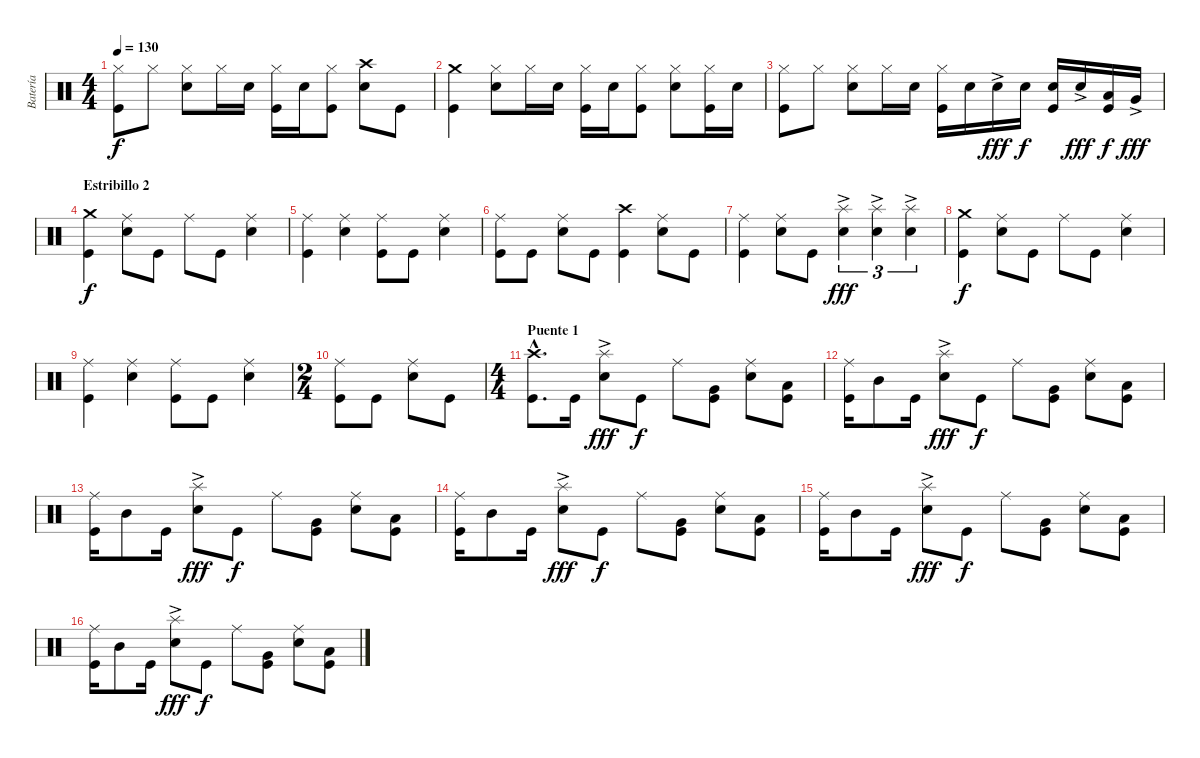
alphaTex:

\track ("Batería" "Batería") {instrument percussion}
\staff {score}
\articulation defaults
\ts (4 4)
\tempo 130
\clef neutral
\ks c
("Kick (hit)" "Hi-Hat (closed)").8{dy f} "Hi-Hat (closed)".8 ("Electric Snare (hit)" "Hi-Hat (closed)").8 "Hi-Hat (closed)".16 "Electric Snare (hit)".16 ("Kick (hit)" "Hi-Hat (closed)").16 "Electric Snare (hit)".16 ("Kick (hit)" "Hi-Hat (closed)").8 ("Electric Snare (hit)" "Crash high (hit)").8 "Kick (hit)".8 |
("Kick (hit)" "Crash medium (hit)").4 ("Electric Snare (hit)" "Hi-Hat (closed)").8 "Hi-Hat (closed)".16 "Electric Snare (hit)".16 ("Kick (hit)" "Hi-Hat (closed)").16 "Electric Snare (hit)".16 ("Kick (hit)" "Hi-Hat (closed)").8 ("Electric Snare (hit)" "Hi-Hat (closed)").8 ("Kick (hit)" "Hi-Hat (closed)").16 "Electric Snare (hit)".16 |
("Kick (hit)" "Hi-Hat (closed)").8 "Hi-Hat (closed)".8 ("Electric Snare (hit)" "Hi-Hat (closed)").8 "Hi-Hat (closed)".16 "Electric Snare (hit)".16 ("Kick (hit)" "Hi-Hat (closed)").16 "Electric Snare (hit)".16 "Electric Snare (hit)"{ac}.16{dy fff} "Electric Snare (hit)".16{dy f} ("Kick (hit)" "Electric Snare (hit)").16 "Electric Snare (hit)"{ac}.16{dy fff} ("Kick (hit)" "Low Tom (hit)").16{dy f} "Very Low Tom (hit)"{ac}.16{dy fff} |
\section ("" "Estribillo 2")
("Kick (hit)" "Crash medium (hit)").4{dy f} ("Electric Snare (hit)" "Ride (middle)").8 "Kick (hit)".8 "Ride (middle)".8 "Kick (hit)".8 ("Electric Snare (hit)" "Ride (middle)").4 |
("Kick (hit)" "Ride (middle)").4 ("Electric Snare (hit)" "Ride (middle)").4 ("Kick (hit)" "Ride (middle)").8 "Kick (hit)".8 ("Electric Snare (hit)" "Ride (middle)").4 |
("Kick (hit)" "Ride (middle)").8 "Kick (hit)".8 ("Electric Snare (hit)" "Ride (middle)").8 "Kick (hit)".8 ("Kick (hit)" "Crash high (hit)").4 ("Electric Snare (hit)" "Ride (middle)").8 "Kick (hit)".8 |
("Kick (hit)" "Ride (middle)").4 ("Electric Snare (hit)" "Ride (middle)").8 "Kick (hit)".8 ("Electric Snare (hit)" "Splash (hit)"{ac}).4{tu (3 2) dy fff} ("Electric Snare (hit)" "Splash (hit)"{ac}).4{tu (3 2)} ("Electric Snare (hit)" "Splash (hit)"{ac}).4{tu (3 2)} |
("Kick (hit)" "Crash medium (hit)").4{dy f} ("Electric Snare (hit)" "Ride (middle)").8 "Kick (hit)".8 "Ride (middle)".8 "Kick (hit)".8 ("Electric Snare (hit)" "Ride (middle)").4 |
("Kick (hit)" "Ride (middle)").4 ("Electric Snare (hit)" "Ride (middle)").4 ("Kick (hit)" "Ride (middle)").8 "Kick (hit)".8 ("Electric Snare (hit)" "Ride (middle)").4 |
\ts (2 4)
("Kick (hit)" "Ride (middle)").8 "Kick (hit)".8 ("Electric Snare (hit)" "Ride (middle)").8 "Kick (hit)".8 |
\ts (4 4)
\section ("" "Puente 1")
("Kick (hit)"{hac} "Crash high (hit)"{hac}).8{d} "Kick (hit)".16 ("Electric Snare (hit)" "Splash (hit)"{ac}).8{dy fff} "Kick (hit)".8{dy f} "Ride (middle)".8 ("Kick (hit)" "Very Low Tom (hit)").8 ("Electric Snare (hit)" "Ride (middle)").8 ("Kick (hit)" "Low Tom (hit)").8 |
("Kick (hit)" "Ride (middle)").16 "Mid Tom (hit)".8 "Kick (hit)".16 ("Electric Snare (hit)" "Splash (hit)"{ac}).8{dy fff} "Kick (hit)".8{dy f} "Ride (middle)".8 ("Kick (hit)" "Very Low Tom (hit)").8 ("Electric Snare (hit)" "Ride (middle)").8 ("Kick (hit)" "Low Tom (hit)").8 |
("Kick (hit)" "Ride (middle)").16 "Mid Tom (hit)".8 "Kick (hit)".16 ("Electric Snare (hit)" "Splash (hit)"{ac}).8{dy fff} "Kick (hit)".8{dy f} "Ride (middle)".8 ("Kick (hit)" "Very Low Tom (hit)").8 ("Electric Snare (hit)" "Ride (middle)").8 ("Kick (hit)" "Low Tom (hit)").8 |
("Kick (hit)" "Ride (middle)").16 "Mid Tom (hit)".8 "Kick (hit)".16 ("Electric Snare (hit)" "Splash (hit)"{ac}).8{dy fff} "Kick (hit)".8{dy f} "Ride (middle)".8 ("Kick (hit)" "Very Low Tom (hit)").8 ("Electric Snare (hit)" "Ride (middle)").8 ("Kick (hit)" "Low Tom (hit)").8 |
("Kick (hit)" "Ride (middle)").16 "Mid Tom (hit)".8 "Kick (hit)".16 ("Electric Snare (hit)" "Splash (hit)"{ac}).8{dy fff} "Kick (hit)".8{dy f} "Ride (middle)".8 ("Kick (hit)" "Very Low Tom (hit)").8 ("Electric Snare (hit)" "Ride (middle)").8 ("Kick (hit)" "Low Tom (hit)").8 |
("Kick (hit)" "Ride (middle)").16 "Mid Tom (hit)".8 "Kick (hit)".16 ("Electric Snare (hit)" "Splash (hit)"{ac}).8{dy fff} "Kick (hit)".8{dy f} "Ride (middle)".8 ("Kick (hit)" "Very Low Tom (hit)").8 ("Electric Snare (hit)" "Ride (middle)").8 ("Kick (hit)" "Low Tom (hit)").8
